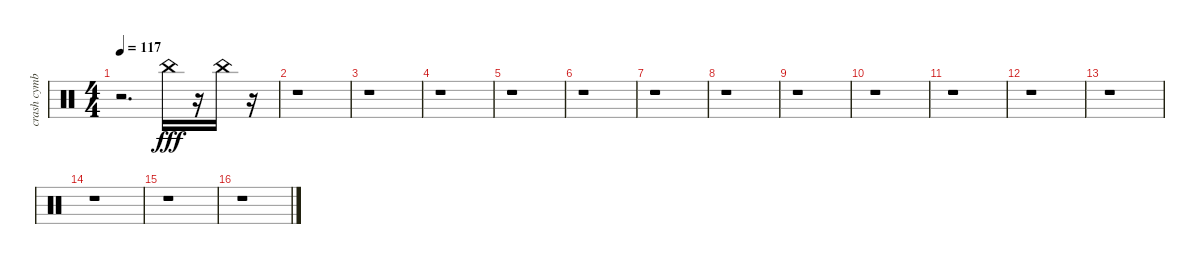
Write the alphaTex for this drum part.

\track ("crash cymbal" "crash cymb") {instrument percussion}
\staff {score}
\articulation defaults
\ts (4 4)
\tempo 117
\clef neutral
\ks c
r.2{d dy fff} "China (hit)".16 r.16 "China (hit)".16 r.16 |
r.1 |
r.1 |
r.1 |
r.1 |
r.1 |
r.1 |
r.1 |
r.1 |
r.1 |
r.1 |
r.1 |
r.1 |
r.1 |
r.1 |
r.1
